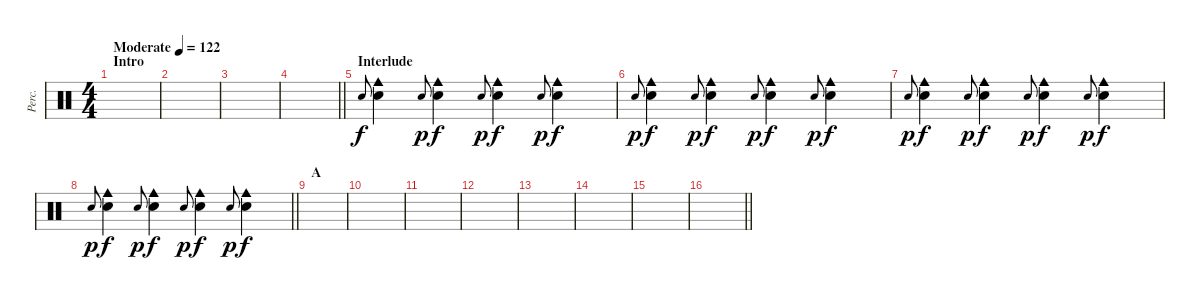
\track ("Perc." "Perc.") {instrument percussion}
\staff {score}
\articulation defaults
\ts (4 4)
\section ("" "Intro")
\tempo (122 "Moderate")
\clef neutral
\ks c
|
|
|
\barLineRight lightlight
|
\section ("" "Interlude")
"Hand Clap (hit)".8{gr onbeat} ("Hand Clap (hit)" "Cowbell medium (hit)").4 "Hand Clap (hit)".8{gr onbeat dy p} ("Hand Clap (hit)" "Cowbell medium (hit)").4{dy f} "Hand Clap (hit)".8{gr onbeat dy p} ("Hand Clap (hit)" "Cowbell medium (hit)").4{dy f} "Hand Clap (hit)".8{gr onbeat dy p} ("Hand Clap (hit)" "Cowbell medium (hit)").4{dy f} |
"Hand Clap (hit)".8{gr onbeat dy p} ("Hand Clap (hit)" "Cowbell medium (hit)").4{dy f} "Hand Clap (hit)".8{gr onbeat dy p} ("Hand Clap (hit)" "Cowbell medium (hit)").4{dy f} "Hand Clap (hit)".8{gr onbeat dy p} ("Hand Clap (hit)" "Cowbell medium (hit)").4{dy f} "Hand Clap (hit)".8{gr onbeat dy p} ("Hand Clap (hit)" "Cowbell medium (hit)").4{dy f} |
"Hand Clap (hit)".8{gr onbeat dy p} ("Hand Clap (hit)" "Cowbell medium (hit)").4{dy f} "Hand Clap (hit)".8{gr onbeat dy p} ("Hand Clap (hit)" "Cowbell medium (hit)").4{dy f} "Hand Clap (hit)".8{gr onbeat dy p} ("Hand Clap (hit)" "Cowbell medium (hit)").4{dy f} "Hand Clap (hit)".8{gr onbeat dy p} ("Hand Clap (hit)" "Cowbell medium (hit)").4{dy f} |
\barLineRight lightlight "Hand Clap (hit)".8{gr onbeat dy p}
("Hand Clap (hit)" "Cowbell medium (hit)").4{dy f} "Hand Clap (hit)".8{gr onbeat dy p} ("Hand Clap (hit)" "Cowbell medium (hit)").4{dy f} "Hand Clap (hit)".8{gr onbeat dy p} ("Hand Clap (hit)" "Cowbell medium (hit)").4{dy f} "Hand Clap (hit)".8{gr onbeat dy p} ("Hand Clap (hit)" "Cowbell medium (hit)").4{dy f} |
\section ("" "A")
|
|
|
|
|
|
|
\barLineRight lightlight
